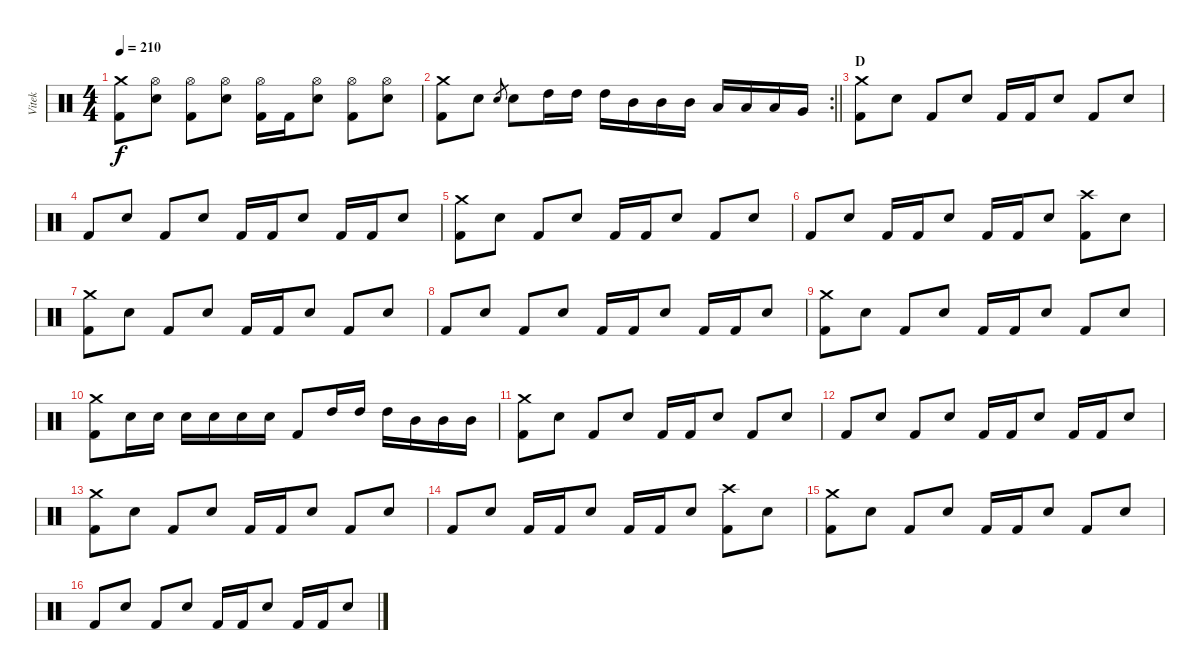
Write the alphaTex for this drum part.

\track ("Vitek" "Vitek") {instrument percussion}
\staff {score}
\articulation defaults
\ts (4 4)
\tempo 210
\clef neutral
\ks c
("Crash medium (hit)" "Kick (hit) 2").8{dy f} ("Hi-Hat (open)" "Electric Snare (hit)").8 ("Hi-Hat (open)" "Kick (hit) 2").8 ("Hi-Hat (open)" "Electric Snare (hit)").8 ("Hi-Hat (open)" "Kick (hit) 2").16 "Kick (hit) 2".16 ("Hi-Hat (open)" "Electric Snare (hit)").8 ("Hi-Hat (open)" "Kick (hit) 2").8 ("Hi-Hat (open)" "Electric Snare (hit)").8 |
\rc 2
\barLineRight lightlight
("Crash medium (hit)" "Kick (hit) 2").8 "Electric Snare (hit)".8 "Electric Snare (hit)".8{gr} "Electric Snare (hit)".8 "High Tom (hit)".16 "High Tom (hit)".16 "High Tom (hit)".16 "Mid Tom (hit)".16 "Mid Tom (hit)".16 "Mid Tom (hit)".16 "Low Tom (hit)".16 "Low Tom (hit)".16 "Low Tom (hit)".16 "Very Low Tom (hit)".16 |
\section ("" "D")
("Crash medium (hit)" "Kick (hit) 2").8 "Electric Snare (hit)".8 "Kick (hit) 2".8 "Electric Snare (hit)".8 "Kick (hit) 2".16 "Kick (hit) 2".16 "Electric Snare (hit)".8 "Kick (hit) 2".8 "Electric Snare (hit)".8 |
"Kick (hit) 2".8 "Electric Snare (hit)".8 "Kick (hit) 2".8 "Electric Snare (hit)".8 "Kick (hit) 2".16 "Kick (hit) 2".16 "Electric Snare (hit)".8 "Kick (hit) 2".16 "Kick (hit) 2".16 "Electric Snare (hit)".8 |
("Crash medium (hit)" "Kick (hit) 2").8 "Electric Snare (hit)".8 "Kick (hit) 2".8 "Electric Snare (hit)".8 "Kick (hit) 2".16 "Kick (hit) 2".16 "Electric Snare (hit)".8 "Kick (hit) 2".8 "Electric Snare (hit)".8 |
"Kick (hit) 2".8 "Electric Snare (hit)".8 "Kick (hit) 2".16 "Kick (hit) 2".16 "Electric Snare (hit)".8 "Kick (hit) 2".16 "Kick (hit) 2".16 "Electric Snare (hit)".8 ("Crash high (hit)" "Kick (hit) 2").8 "Electric Snare (hit)".8 |
("Crash medium (hit)" "Kick (hit) 2").8 "Electric Snare (hit)".8 "Kick (hit) 2".8 "Electric Snare (hit)".8 "Kick (hit) 2".16 "Kick (hit) 2".16 "Electric Snare (hit)".8 "Kick (hit) 2".8 "Electric Snare (hit)".8 |
"Kick (hit) 2".8 "Electric Snare (hit)".8 "Kick (hit) 2".8 "Electric Snare (hit)".8 "Kick (hit) 2".16 "Kick (hit) 2".16 "Electric Snare (hit)".8 "Kick (hit) 2".16 "Kick (hit) 2".16 "Electric Snare (hit)".8 |
("Crash medium (hit)" "Kick (hit) 2").8 "Electric Snare (hit)".8 "Kick (hit) 2".8 "Electric Snare (hit)".8 "Kick (hit) 2".16 "Kick (hit) 2".16 "Electric Snare (hit)".8 "Kick (hit) 2".8 "Electric Snare (hit)".8 |
("Crash medium (hit)" "Kick (hit) 2").8 "Electric Snare (hit)".16 "Electric Snare (hit)".16 "Electric Snare (hit)".16 "Electric Snare (hit)".16 "Electric Snare (hit)".16 "Electric Snare (hit)".16 "Kick (hit) 2".8 "High Tom (hit)".16 "High Tom (hit)".16 "High Tom (hit)".16 "Mid Tom (hit)".16 "Mid Tom (hit)".16 "Mid Tom (hit)".16 |
("Crash medium (hit)" "Kick (hit) 2").8 "Electric Snare (hit)".8 "Kick (hit) 2".8 "Electric Snare (hit)".8 "Kick (hit) 2".16 "Kick (hit) 2".16 "Electric Snare (hit)".8 "Kick (hit) 2".8 "Electric Snare (hit)".8 |
"Kick (hit) 2".8 "Electric Snare (hit)".8 "Kick (hit) 2".8 "Electric Snare (hit)".8 "Kick (hit) 2".16 "Kick (hit) 2".16 "Electric Snare (hit)".8 "Kick (hit) 2".16 "Kick (hit) 2".16 "Electric Snare (hit)".8 |
("Crash medium (hit)" "Kick (hit) 2").8 "Electric Snare (hit)".8 "Kick (hit) 2".8 "Electric Snare (hit)".8 "Kick (hit) 2".16 "Kick (hit) 2".16 "Electric Snare (hit)".8 "Kick (hit) 2".8 "Electric Snare (hit)".8 |
"Kick (hit) 2".8 "Electric Snare (hit)".8 "Kick (hit) 2".16 "Kick (hit) 2".16 "Electric Snare (hit)".8 "Kick (hit) 2".16 "Kick (hit) 2".16 "Electric Snare (hit)".8 ("Crash high (hit)" "Kick (hit) 2").8 "Electric Snare (hit)".8 |
("Crash medium (hit)" "Kick (hit) 2").8 "Electric Snare (hit)".8 "Kick (hit) 2".8 "Electric Snare (hit)".8 "Kick (hit) 2".16 "Kick (hit) 2".16 "Electric Snare (hit)".8 "Kick (hit) 2".8 "Electric Snare (hit)".8 |
"Kick (hit) 2".8 "Electric Snare (hit)".8 "Kick (hit) 2".8 "Electric Snare (hit)".8 "Kick (hit) 2".16 "Kick (hit) 2".16 "Electric Snare (hit)".8 "Kick (hit) 2".16 "Kick (hit) 2".16 "Electric Snare (hit)".8
